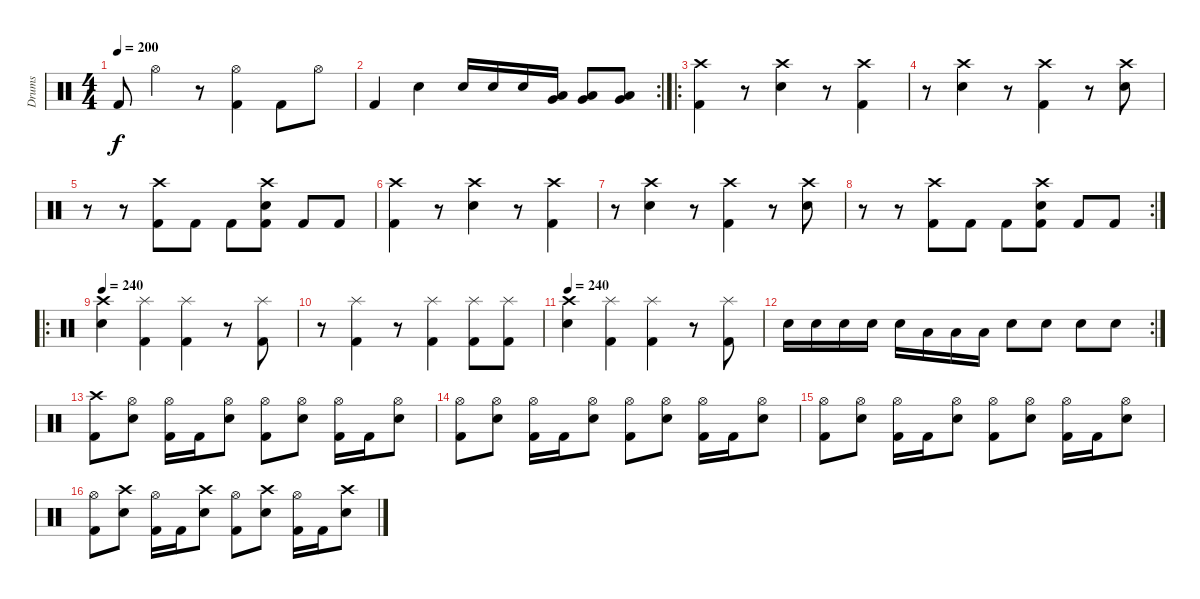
\track ("Drums" "Drums") {instrument percussion}
\staff {score}
\articulation defaults
\ts (4 4)
\tempo 200
\clef neutral
\ks c "Kick (hit) 2".8{dy f} "Hi-Hat (open)".4
r.8 ("Hi-Hat (open)" "Kick (hit) 2").4 "Kick (hit) 2".8 "Hi-Hat (open)".8 |
\rc 2 "Kick (hit) 2".4 "Snare (hit) 2".4 "Snare (hit) 2".16 "Snare (hit) 2".16 "Snare (hit) 2".16
("Low Tom (hit)" "Very Low Tom (hit)").16 ("Low Tom (hit)" "Very Low Tom (hit)").8 ("Low Tom (hit)" "Very Low Tom (hit)").8 |
\ro
("Crash high (hit)" "Kick (hit) 2").4 r.8 ("Crash high (hit)" "Snare (hit) 2").4 r.8 ("Crash high (hit)" "Kick (hit) 2").4 |
r.8 ("Crash high (hit)" "Snare (hit) 2").4 r.8 ("Crash high (hit)" "Kick (hit) 2").4 r.8 ("Crash high (hit)" "Snare (hit) 2").8 |
r.8 r.8 ("Crash high (hit)" "Kick (hit) 2").8 "Kick (hit) 2".8 "Kick (hit) 2".8 ("Crash high (hit)" "Snare (hit) 2" "Kick (hit) 2").8 "Kick (hit) 2".8 "Kick (hit) 2".8 |
("Crash high (hit)" "Kick (hit) 2").4 r.8 ("Crash high (hit)" "Snare (hit) 2").4 r.8 ("Crash high (hit)" "Kick (hit) 2").4 |
r.8 ("Crash high (hit)" "Snare (hit) 2").4 r.8 ("Crash high (hit)" "Kick (hit) 2").4 r.8 ("Crash high (hit)" "Snare (hit) 2").8 |
\rc 2
r.8 r.8 ("Crash high (hit)" "Kick (hit) 2").8 "Kick (hit) 2".8 "Kick (hit) 2".8 ("Crash high (hit)" "Snare (hit) 2" "Kick (hit) 2").8 "Kick (hit) 2".8 "Kick (hit) 2".8 |
\ro
\tempo 240
("Crash high (hit)" "Snare (hit) 2").4 ("Splash (hit)" "Kick (hit) 2").4 ("Splash (hit)" "Kick (hit) 2").4 r.8 ("Splash (hit)" "Kick (hit) 2").8 |
r.8 ("Splash (hit)" "Kick (hit) 2").4 r.8 ("Splash (hit)" "Kick (hit) 2").4 ("Splash (hit)" "Kick (hit) 2").8 ("Splash (hit)" "Kick (hit) 2").8 |
\tempo 240
("Crash high (hit)" "Snare (hit) 2").4 ("Splash (hit)" "Kick (hit) 2").4 ("Splash (hit)" "Kick (hit) 2").4 r.8 ("Splash (hit)" "Kick (hit) 2").8 |
\rc 2 "Snare (hit) 2".16 "Snare (hit) 2".16 "Snare (hit) 2".16 "Snare (hit) 2".16 "Snare (hit) 2".16 "Low Tom (hit)".16 "Low Tom (hit)".16 "Low Tom (hit)".16 "Snare (hit) 2".8 "Snare (hit) 2".8 "Snare (hit) 2".8 "Snare (hit) 2".8
|
("Crash high (hit)" "Kick (hit) 2").8 ("Hi-Hat (open)" "Snare (hit) 2").8 ("Hi-Hat (open)" "Kick (hit) 2").16 "Kick (hit) 2".16 ("Hi-Hat (open)" "Snare (hit) 2").8 ("Hi-Hat (open)" "Kick (hit) 2").8 ("Hi-Hat (open)" "Snare (hit) 2").8 ("Hi-Hat (open)" "Kick (hit) 2").16 "Kick (hit) 2".16 ("Hi-Hat (open)" "Snare (hit) 2").8 |
("Hi-Hat (open)" "Kick (hit) 2").8 ("Hi-Hat (open)" "Snare (hit) 2").8 ("Hi-Hat (open)" "Kick (hit) 2").16 "Kick (hit) 2".16 ("Hi-Hat (open)" "Snare (hit) 2").8 ("Hi-Hat (open)" "Kick (hit) 2").8 ("Hi-Hat (open)" "Snare (hit) 2").8 ("Hi-Hat (open)" "Kick (hit) 2").16 "Kick (hit) 2".16 ("Hi-Hat (open)" "Snare (hit) 2").8 |
("Hi-Hat (open)" "Kick (hit) 2").8 ("Hi-Hat (open)" "Snare (hit) 2").8 ("Hi-Hat (open)" "Kick (hit) 2").16 "Kick (hit) 2".16 ("Hi-Hat (open)" "Snare (hit) 2").8 ("Hi-Hat (open)" "Kick (hit) 2").8 ("Hi-Hat (open)" "Snare (hit) 2").8 ("Hi-Hat (open)" "Kick (hit) 2").16 "Kick (hit) 2".16 ("Hi-Hat (open)" "Snare (hit) 2").8 |
("Hi-Hat (open)" "Kick (hit) 2").8 ("Crash high (hit)" "Snare (hit) 2").8 ("Hi-Hat (open)" "Kick (hit) 2").16 "Kick (hit) 2".16 ("Crash high (hit)" "Snare (hit) 2").8 ("Hi-Hat (open)" "Kick (hit) 2").8 ("Crash high (hit)" "Snare (hit) 2").8 ("Hi-Hat (open)" "Kick (hit) 2").16 "Kick (hit) 2".16 ("Crash high (hit)" "Snare (hit) 2").8
